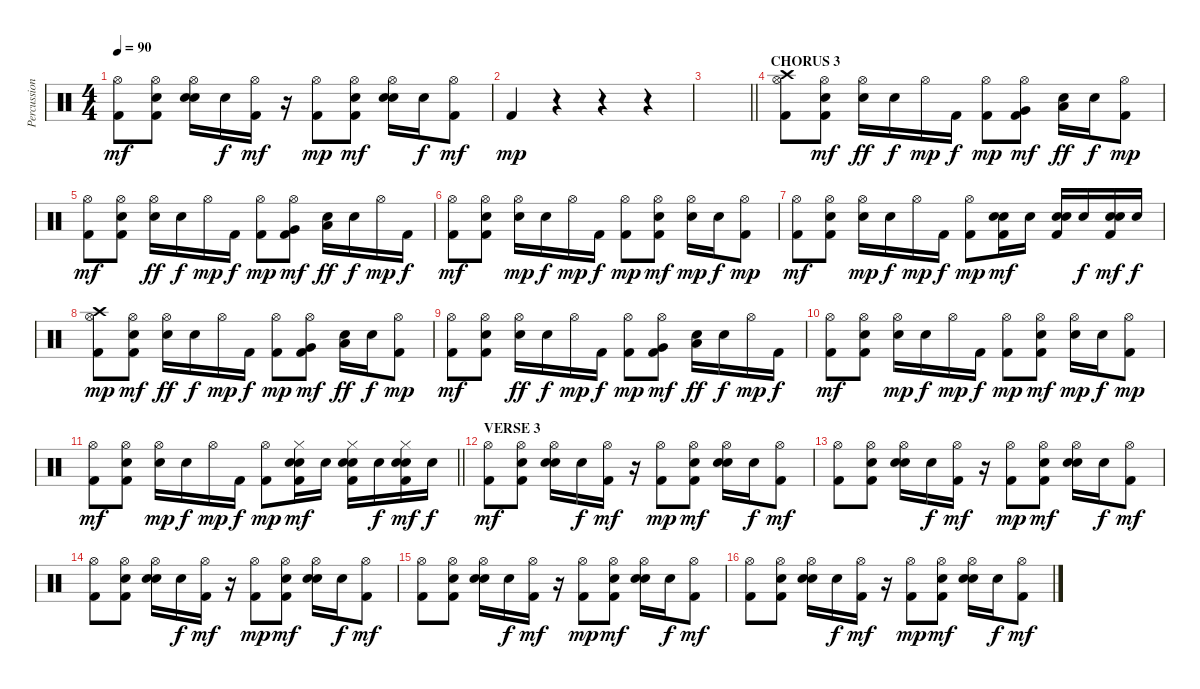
\track ("Percussion" "Percussion") {instrument percussion}
\staff {score}
\articulation defaults
\ts (4 4)
\tempo 90
\clef neutral
\ks c
("Hi-Hat (open)" "Kick (hit) 2").8{dy mf} ("Hi-Hat (open)" "Snare (hit) 2" "Kick (hit) 2").8 ("Hi-Hat (open)" "Electric Snare (hit)" "Snare (hit) 2").16 "Snare (hit) 2".16{dy f} ("Hi-Hat (open)" "Kick (hit) 2").16{dy mf} r.16 ("Hi-Hat (open)" "Kick (hit) 2").8{dy mp} ("Hi-Hat (open)" "Snare (hit) 2" "Kick (hit) 2").8{dy mf} ("Hi-Hat (open)" "Electric Snare (hit)" "Snare (hit) 2").16 "Snare (hit) 2".16{dy f} ("Hi-Hat (open)" "Kick (hit) 2").8{dy mf} |
"Kick (hit) 2".4{dy mp} r.4 r.4 r.4 |
\barLineRight lightlight
|
\section ("" "CHORUS 3")
("Hi-Hat (open)" "Crash high (hit)" "Kick (hit) 2").8 ("Hi-Hat (open)" "Snare (hit) 2" "Kick (hit) 2").8{dy mf} ("Hi-Hat (open)" "Snare (hit) 2").16{dy ff} "Snare (hit) 2".16{dy f} "Hi-Hat (open)".16{dy mp} "Kick (hit) 2".16{dy f} ("Hi-Hat (open)" "Kick (hit) 2").8{dy mp} ("Hi-Hat (open)" "Very Low Tom (hit)" "Kick (hit) 2").8{dy mf} ("Low Floor Tom (hit)" "Snare (hit) 2").16{dy ff} "Snare (hit) 2".16{dy f} ("Hi-Hat (open)" "Kick (hit) 2").8{dy mp} |
("Hi-Hat (open)" "Kick (hit) 2").8{dy mf} ("Hi-Hat (open)" "Snare (hit) 2" "Kick (hit) 2").8 ("Hi-Hat (open)" "Snare (hit) 2").16{dy ff} "Snare (hit) 2".16{dy f} "Hi-Hat (open)".16{dy mp} "Kick (hit) 2".16{dy f} ("Hi-Hat (open)" "Kick (hit) 2").8{dy mp} ("Hi-Hat (open)" "Very Low Tom (hit)" "Kick (hit) 2").8{dy mf} ("Low Floor Tom (hit)" "Snare (hit) 2").16{dy ff} "Snare (hit) 2".16{dy f} "Hi-Hat (open)".16{dy mp} "Kick (hit) 2".16{dy f} |
("Hi-Hat (open)" "Kick (hit) 2").8{dy mf} ("Hi-Hat (open)" "Snare (hit) 2" "Kick (hit) 2").8 ("Hi-Hat (open)" "Snare (hit) 2").16{dy mp} "Snare (hit) 2".16{dy f} "Hi-Hat (open)".16{dy mp} "Kick (hit) 2".16{dy f} ("Hi-Hat (open)" "Kick (hit) 2").8{dy mp} ("Hi-Hat (open)" "Snare (hit) 2" "Kick (hit) 2").8{dy mf} ("Hi-Hat (open)" "Snare (hit) 2").16{dy mp} "Snare (hit) 2".16{dy f} ("Hi-Hat (open)" "Kick (hit) 2").8{dy mp} |
("Hi-Hat (open)" "Kick (hit) 2").8{dy mf} ("Hi-Hat (open)" "Snare (hit) 2" "Kick (hit) 2").8 ("Hi-Hat (open)" "Snare (hit) 2").16{dy mp} "Snare (hit) 2".16{dy f} "Hi-Hat (open)".16{dy mp} "Kick (hit) 2".16{dy f} ("Hi-Hat (open)" "Kick (hit) 2").8{dy mp} ("Electric Snare (hit)" "Snare (hit) 2" "Kick (hit) 2").16{dy mf} "Electric Snare (hit)".16 ("Electric Snare (hit)" "Snare (hit) 2" "Kick (hit) 2").16 "Electric Snare (hit)".16{dy f} ("Electric Snare (hit)" "Snare (hit) 2" "Kick (hit) 2").16{dy mf} "Electric Snare (hit)".16{dy f} |
("Hi-Hat (open)" "Crash high (hit)" "Kick (hit) 2").8{dy mp} ("Hi-Hat (open)" "Snare (hit) 2" "Kick (hit) 2").8{dy mf} ("Hi-Hat (open)" "Snare (hit) 2").16{dy ff} "Snare (hit) 2".16{dy f} "Hi-Hat (open)".16{dy mp} "Kick (hit) 2".16{dy f} ("Hi-Hat (open)" "Kick (hit) 2").8{dy mp} ("Hi-Hat (open)" "Very Low Tom (hit)" "Kick (hit) 2").8{dy mf} ("Low Floor Tom (hit)" "Snare (hit) 2").16{dy ff} "Snare (hit) 2".16{dy f} ("Hi-Hat (open)" "Kick (hit) 2").8{dy mp} |
("Hi-Hat (open)" "Kick (hit) 2").8{dy mf} ("Hi-Hat (open)" "Snare (hit) 2" "Kick (hit) 2").8 ("Hi-Hat (open)" "Snare (hit) 2").16{dy ff} "Snare (hit) 2".16{dy f} "Hi-Hat (open)".16{dy mp} "Kick (hit) 2".16{dy f} ("Hi-Hat (open)" "Kick (hit) 2").8{dy mp} ("Hi-Hat (open)" "Very Low Tom (hit)" "Kick (hit) 2").8{dy mf} ("Low Floor Tom (hit)" "Snare (hit) 2").16{dy ff} "Snare (hit) 2".16{dy f} "Hi-Hat (open)".16{dy mp} "Kick (hit) 2".16{dy f} |
("Hi-Hat (open)" "Kick (hit) 2").8{dy mf} ("Hi-Hat (open)" "Snare (hit) 2" "Kick (hit) 2").8 ("Hi-Hat (open)" "Snare (hit) 2").16{dy mp} "Snare (hit) 2".16{dy f} "Hi-Hat (open)".16{dy mp} "Kick (hit) 2".16{dy f} ("Hi-Hat (open)" "Kick (hit) 2").8{dy mp} ("Hi-Hat (open)" "Snare (hit) 2" "Kick (hit) 2").8{dy mf} ("Hi-Hat (open)" "Snare (hit) 2").16{dy mp} "Snare (hit) 2".16{dy f} ("Hi-Hat (open)" "Kick (hit) 2").8{dy mp} |
\barLineRight lightlight
("Hi-Hat (open)" "Kick (hit) 2").8{dy mf} ("Hi-Hat (open)" "Snare (hit) 2" "Kick (hit) 2").8 ("Hi-Hat (open)" "Snare (hit) 2").16{dy mp} "Snare (hit) 2".16{dy f} "Hi-Hat (open)".16{dy mp} "Kick (hit) 2".16{dy f} ("Hi-Hat (open)" "Kick (hit) 2").8{dy mp} ("Hi-Hat (closed)" "Electric Snare (hit)" "Snare (hit) 2" "Kick (hit) 2").16{dy mf} "Electric Snare (hit)".16 ("Hi-Hat (closed)" "Electric Snare (hit)" "Snare (hit) 2" "Kick (hit) 2").16 "Electric Snare (hit)".16{dy f} ("Hi-Hat (closed)" "Electric Snare (hit)" "Snare (hit) 2" "Kick (hit) 2").16{dy mf} "Electric Snare (hit)".16{dy f} |
\section ("" "VERSE 3")
("Hi-Hat (open)" "Kick (hit) 2").8{dy mf} ("Hi-Hat (open)" "Snare (hit) 2" "Kick (hit) 2").8 ("Hi-Hat (open)" "Electric Snare (hit)" "Snare (hit) 2").16 "Snare (hit) 2".16{dy f} ("Hi-Hat (open)" "Kick (hit) 2").16{dy mf} r.16 ("Hi-Hat (open)" "Kick (hit) 2").8{dy mp} ("Hi-Hat (open)" "Snare (hit) 2" "Kick (hit) 2").8{dy mf} ("Hi-Hat (open)" "Electric Snare (hit)" "Snare (hit) 2").16 "Snare (hit) 2".16{dy f} ("Hi-Hat (open)" "Kick (hit) 2").8{dy mf} |
("Hi-Hat (open)" "Kick (hit) 2").8 ("Hi-Hat (open)" "Snare (hit) 2" "Kick (hit) 2").8 ("Hi-Hat (open)" "Electric Snare (hit)" "Snare (hit) 2").16 "Snare (hit) 2".16{dy f} ("Hi-Hat (open)" "Kick (hit) 2").16{dy mf} r.16 ("Hi-Hat (open)" "Kick (hit) 2").8{dy mp} ("Hi-Hat (open)" "Snare (hit) 2" "Kick (hit) 2").8{dy mf} ("Hi-Hat (open)" "Electric Snare (hit)" "Snare (hit) 2").16 "Snare (hit) 2".16{dy f} ("Hi-Hat (open)" "Kick (hit) 2").8{dy mf} |
("Hi-Hat (open)" "Kick (hit) 2").8 ("Hi-Hat (open)" "Snare (hit) 2" "Kick (hit) 2").8 ("Hi-Hat (open)" "Electric Snare (hit)" "Snare (hit) 2").16 "Snare (hit) 2".16{dy f} ("Hi-Hat (open)" "Kick (hit) 2").16{dy mf} r.16 ("Hi-Hat (open)" "Kick (hit) 2").8{dy mp} ("Hi-Hat (open)" "Snare (hit) 2" "Kick (hit) 2").8{dy mf} ("Hi-Hat (open)" "Electric Snare (hit)" "Snare (hit) 2").16 "Snare (hit) 2".16{dy f} ("Hi-Hat (open)" "Kick (hit) 2").8{dy mf} |
("Hi-Hat (open)" "Kick (hit) 2").8 ("Hi-Hat (open)" "Snare (hit) 2" "Kick (hit) 2").8 ("Hi-Hat (open)" "Electric Snare (hit)" "Snare (hit) 2").16 "Snare (hit) 2".16{dy f} ("Hi-Hat (open)" "Kick (hit) 2").16{dy mf} r.16 ("Hi-Hat (open)" "Kick (hit) 2").8{dy mp} ("Hi-Hat (open)" "Snare (hit) 2" "Kick (hit) 2").8{dy mf} ("Hi-Hat (open)" "Electric Snare (hit)" "Snare (hit) 2").16 "Snare (hit) 2".16{dy f} ("Hi-Hat (open)" "Kick (hit) 2").8{dy mf} |
("Hi-Hat (open)" "Kick (hit) 2").8 ("Hi-Hat (open)" "Snare (hit) 2" "Kick (hit) 2").8 ("Hi-Hat (open)" "Electric Snare (hit)" "Snare (hit) 2").16 "Snare (hit) 2".16{dy f} ("Hi-Hat (open)" "Kick (hit) 2").16{dy mf} r.16 ("Hi-Hat (open)" "Kick (hit) 2").8{dy mp} ("Hi-Hat (open)" "Snare (hit) 2" "Kick (hit) 2").8{dy mf} ("Hi-Hat (open)" "Electric Snare (hit)" "Snare (hit) 2").16 "Snare (hit) 2".16{dy f} ("Hi-Hat (open)" "Kick (hit) 2").8{dy mf}
